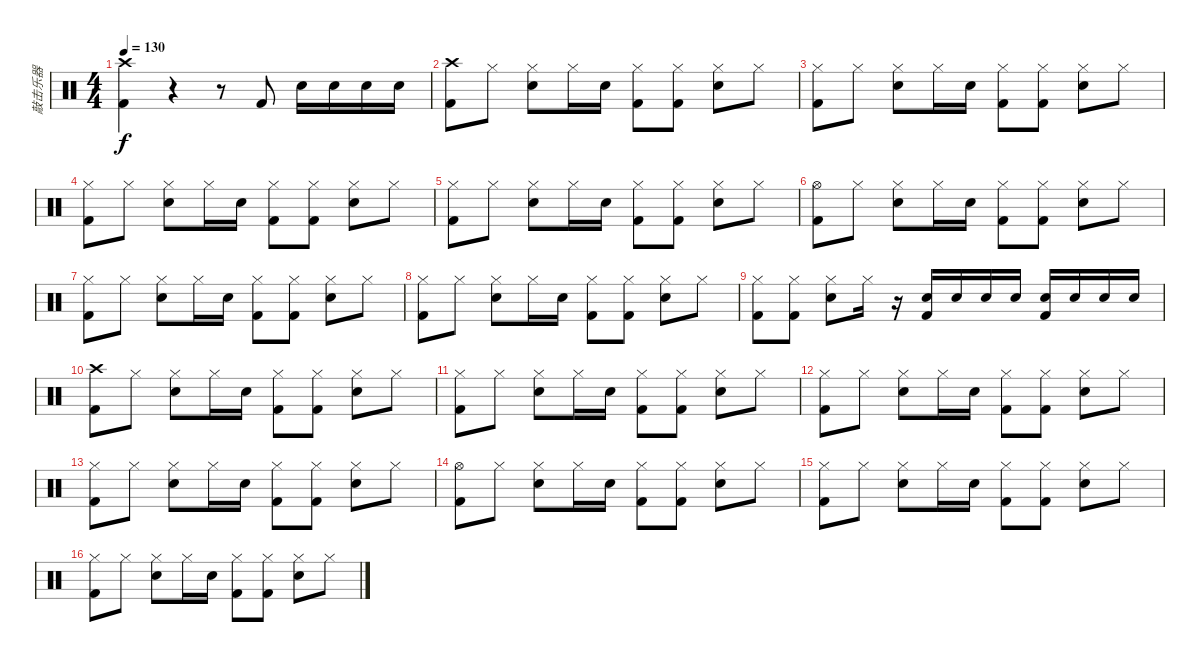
\track ("敲击乐器" "敲击乐器") {instrument percussion}
\staff {score}
\articulation defaults
\ts (4 4)
\tempo 130
\clef neutral
\ks c
("Crash high (hit)" "Kick (hit) 2").4{dy f} r.4 r.8 "Kick (hit) 2".8 "Snare (hit) 2".16 "Snare (hit) 2".16 "Snare (hit) 2".16 "Snare (hit) 2".16 |
("Crash high (hit)" "Kick (hit) 2").8 "Hi-Hat (closed)".8 ("Hi-Hat (closed)" "Snare (hit) 2").8 "Hi-Hat (closed)".16 "Snare (hit) 2".16 ("Hi-Hat (closed)" "Kick (hit) 2").8 ("Hi-Hat (closed)" "Kick (hit) 2").8 ("Hi-Hat (closed)" "Snare (hit) 2").8 "Hi-Hat (closed)".8 |
("Hi-Hat (closed)" "Kick (hit) 2").8 "Hi-Hat (closed)".8 ("Hi-Hat (closed)" "Snare (hit) 2").8 "Hi-Hat (closed)".16 "Snare (hit) 2".16 ("Hi-Hat (closed)" "Kick (hit) 2").8 ("Hi-Hat (closed)" "Kick (hit) 2").8 ("Hi-Hat (closed)" "Snare (hit) 2").8 "Hi-Hat (closed)".8 |
("Hi-Hat (closed)" "Kick (hit) 2").8 "Hi-Hat (closed)".8 ("Hi-Hat (closed)" "Snare (hit) 2").8 "Hi-Hat (closed)".16 "Snare (hit) 2".16 ("Hi-Hat (closed)" "Kick (hit) 2").8 ("Hi-Hat (closed)" "Kick (hit) 2").8 ("Hi-Hat (closed)" "Snare (hit) 2").8 "Hi-Hat (closed)".8 |
("Hi-Hat (closed)" "Kick (hit) 2").8 "Hi-Hat (closed)".8 ("Hi-Hat (closed)" "Snare (hit) 2").8 "Hi-Hat (closed)".16 "Snare (hit) 2".16 ("Hi-Hat (closed)" "Kick (hit) 2").8 ("Hi-Hat (closed)" "Kick (hit) 2").8 ("Hi-Hat (closed)" "Snare (hit) 2").8 "Hi-Hat (closed)".8 |
("Hi-Hat (open)" "Kick (hit) 2").8 "Hi-Hat (closed)".8 ("Hi-Hat (closed)" "Snare (hit) 2").8 "Hi-Hat (closed)".16 "Snare (hit) 2".16 ("Hi-Hat (closed)" "Kick (hit) 2").8 ("Hi-Hat (closed)" "Kick (hit) 2").8 ("Hi-Hat (closed)" "Snare (hit) 2").8 "Hi-Hat (closed)".8 |
("Hi-Hat (closed)" "Kick (hit) 2").8 "Hi-Hat (closed)".8 ("Hi-Hat (closed)" "Snare (hit) 2").8 "Hi-Hat (closed)".16 "Snare (hit) 2".16 ("Hi-Hat (closed)" "Kick (hit) 2").8 ("Hi-Hat (closed)" "Kick (hit) 2").8 ("Hi-Hat (closed)" "Snare (hit) 2").8 "Hi-Hat (closed)".8 |
("Hi-Hat (closed)" "Kick (hit) 2").8 "Hi-Hat (closed)".8 ("Hi-Hat (closed)" "Snare (hit) 2").8 "Hi-Hat (closed)".16 "Snare (hit) 2".16 ("Hi-Hat (closed)" "Kick (hit) 2").8 ("Hi-Hat (closed)" "Kick (hit) 2").8 ("Hi-Hat (closed)" "Snare (hit) 2").8 "Hi-Hat (closed)".8 |
("Hi-Hat (closed)" "Kick (hit) 2").8 ("Hi-Hat (closed)" "Kick (hit) 2").8 ("Hi-Hat (closed)" "Snare (hit) 2").8 "Hi-Hat (closed)".16 r.16 ("Snare (hit) 2" "Kick (hit) 2").16 "Snare (hit) 2".16 "Snare (hit) 2".16 "Snare (hit) 2".16 ("Snare (hit) 2" "Kick (hit) 2").16 "Snare (hit) 2".16 "Snare (hit) 2".16 "Snare (hit) 2".16 |
("Crash high (hit)" "Kick (hit) 2").8 "Hi-Hat (closed)".8 ("Hi-Hat (closed)" "Snare (hit) 2").8 "Hi-Hat (closed)".16 "Snare (hit) 2".16 ("Hi-Hat (closed)" "Kick (hit) 2").8 ("Hi-Hat (closed)" "Kick (hit) 2").8 ("Hi-Hat (closed)" "Snare (hit) 2").8 "Hi-Hat (closed)".8 |
("Hi-Hat (closed)" "Kick (hit) 2").8 "Hi-Hat (closed)".8 ("Hi-Hat (closed)" "Snare (hit) 2").8 "Hi-Hat (closed)".16 "Snare (hit) 2".16 ("Hi-Hat (closed)" "Kick (hit) 2").8 ("Hi-Hat (closed)" "Kick (hit) 2").8 ("Hi-Hat (closed)" "Snare (hit) 2").8 "Hi-Hat (closed)".8 |
("Hi-Hat (closed)" "Kick (hit) 2").8 "Hi-Hat (closed)".8 ("Hi-Hat (closed)" "Snare (hit) 2").8 "Hi-Hat (closed)".16 "Snare (hit) 2".16 ("Hi-Hat (closed)" "Kick (hit) 2").8 ("Hi-Hat (closed)" "Kick (hit) 2").8 ("Hi-Hat (closed)" "Snare (hit) 2").8 "Hi-Hat (closed)".8 |
("Hi-Hat (closed)" "Kick (hit) 2").8 "Hi-Hat (closed)".8 ("Hi-Hat (closed)" "Snare (hit) 2").8 "Hi-Hat (closed)".16 "Snare (hit) 2".16 ("Hi-Hat (closed)" "Kick (hit) 2").8 ("Hi-Hat (closed)" "Kick (hit) 2").8 ("Hi-Hat (closed)" "Snare (hit) 2").8 "Hi-Hat (closed)".8 |
("Hi-Hat (open)" "Kick (hit) 2").8 "Hi-Hat (closed)".8 ("Hi-Hat (closed)" "Snare (hit) 2").8 "Hi-Hat (closed)".16 "Snare (hit) 2".16 ("Hi-Hat (closed)" "Kick (hit) 2").8 ("Hi-Hat (closed)" "Kick (hit) 2").8 ("Hi-Hat (closed)" "Snare (hit) 2").8 "Hi-Hat (closed)".8 |
("Hi-Hat (closed)" "Kick (hit) 2").8 "Hi-Hat (closed)".8 ("Hi-Hat (closed)" "Snare (hit) 2").8 "Hi-Hat (closed)".16 "Snare (hit) 2".16 ("Hi-Hat (closed)" "Kick (hit) 2").8 ("Hi-Hat (closed)" "Kick (hit) 2").8 ("Hi-Hat (closed)" "Snare (hit) 2").8 "Hi-Hat (closed)".8 |
("Hi-Hat (closed)" "Kick (hit) 2").8 "Hi-Hat (closed)".8 ("Hi-Hat (closed)" "Snare (hit) 2").8 "Hi-Hat (closed)".16 "Snare (hit) 2".16 ("Hi-Hat (closed)" "Kick (hit) 2").8 ("Hi-Hat (closed)" "Kick (hit) 2").8 ("Hi-Hat (closed)" "Snare (hit) 2").8 "Hi-Hat (closed)".8
